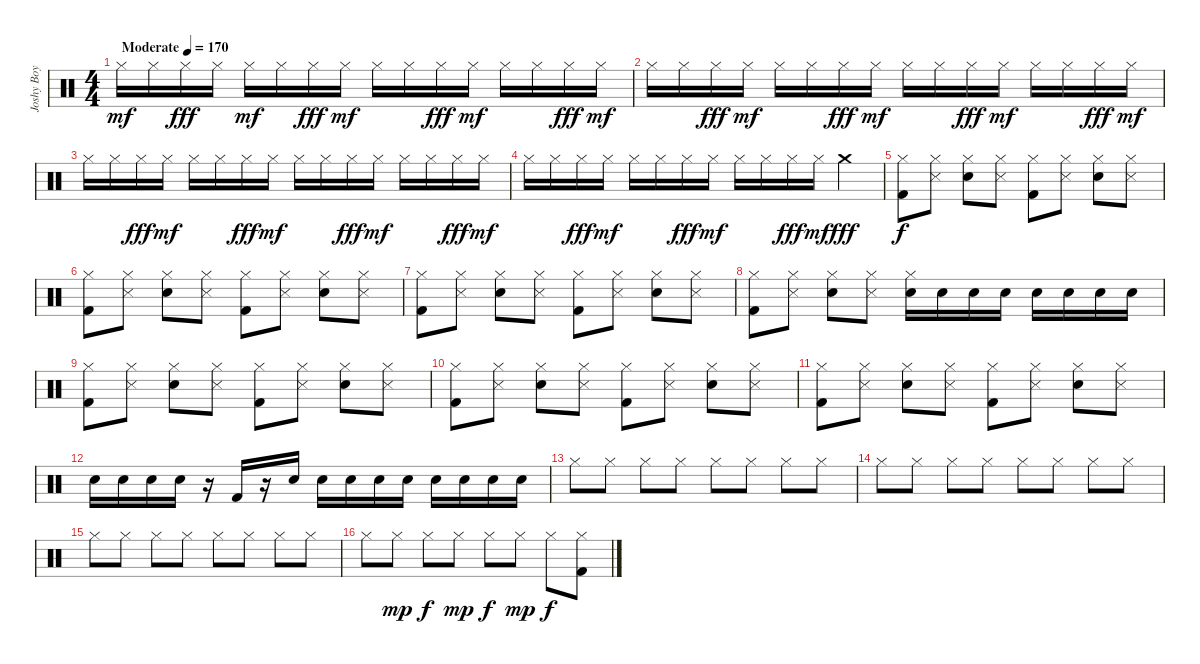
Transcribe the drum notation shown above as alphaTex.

\track ("Joshy Boy" "Joshy Boy") {instrument percussion}
\staff {score}
\articulation defaults
\ts (4 4)
\tempo (170 "Moderate")
\clef neutral
\ks c "Hi-Hat (closed)".16{dy mf} "Hi-Hat (closed)".16 "Hi-Hat (closed)".16{dy fff} "Hi-Hat (closed)".16 "Hi-Hat (closed)".16{dy mf} "Hi-Hat (closed)".16 "Hi-Hat (closed)".16{dy fff} "Hi-Hat (closed)".16{dy mf} "Hi-Hat (closed)".16 "Hi-Hat (closed)".16 "Hi-Hat (closed)".16{dy fff} "Hi-Hat (closed)".16{dy mf} "Hi-Hat (closed)".16 "Hi-Hat (closed)".16 "Hi-Hat (closed)".16{dy fff} "Hi-Hat (closed)".16{dy mf}
|
"Hi-Hat (closed)".16 "Hi-Hat (closed)".16 "Hi-Hat (closed)".16{dy fff} "Hi-Hat (closed)".16{dy mf} "Hi-Hat (closed)".16 "Hi-Hat (closed)".16 "Hi-Hat (closed)".16{dy fff} "Hi-Hat (closed)".16{dy mf} "Hi-Hat (closed)".16 "Hi-Hat (closed)".16 "Hi-Hat (closed)".16{dy fff} "Hi-Hat (closed)".16{dy mf} "Hi-Hat (closed)".16 "Hi-Hat (closed)".16 "Hi-Hat (closed)".16{dy fff} "Hi-Hat (closed)".16{dy mf} |
"Hi-Hat (closed)".16 "Hi-Hat (closed)".16 "Hi-Hat (closed)".16{dy fff} "Hi-Hat (closed)".16{dy mf} "Hi-Hat (closed)".16 "Hi-Hat (closed)".16 "Hi-Hat (closed)".16{dy fff} "Hi-Hat (closed)".16{dy mf} "Hi-Hat (closed)".16 "Hi-Hat (closed)".16 "Hi-Hat (closed)".16{dy fff} "Hi-Hat (closed)".16{dy mf} "Hi-Hat (closed)".16 "Hi-Hat (closed)".16 "Hi-Hat (closed)".16{dy fff} "Hi-Hat (closed)".16{dy mf} |
"Hi-Hat (closed)".16 "Hi-Hat (closed)".16 "Hi-Hat (closed)".16{dy fff} "Hi-Hat (closed)".16{dy mf} "Hi-Hat (closed)".16 "Hi-Hat (closed)".16 "Hi-Hat (closed)".16{dy fff} "Hi-Hat (closed)".16{dy mf} "Hi-Hat (closed)".16 "Hi-Hat (closed)".16 "Hi-Hat (closed)".16{dy fff} "Hi-Hat (closed)".16{dy mf} "Crash medium (hit)".4{dy fff} |
("Hi-Hat (closed)" "Kick (hit) 2").8{dy f} ("Hi-Hat (closed)" "Snare (side stick) 3").8 ("Hi-Hat (closed)" "Electric Snare (hit)").8 ("Hi-Hat (closed)" "Snare (side stick) 3").8 ("Hi-Hat (closed)" "Kick (hit) 2").8 ("Hi-Hat (closed)" "Snare (side stick) 3").8 ("Hi-Hat (closed)" "Electric Snare (hit)").8 ("Hi-Hat (closed)" "Snare (side stick) 3").8 |
("Hi-Hat (closed)" "Kick (hit) 2").8 ("Hi-Hat (closed)" "Snare (side stick) 3").8 ("Hi-Hat (closed)" "Electric Snare (hit)").8 ("Hi-Hat (closed)" "Snare (side stick) 3").8 ("Hi-Hat (closed)" "Kick (hit) 2").8 ("Hi-Hat (closed)" "Snare (side stick) 3").8 ("Hi-Hat (closed)" "Electric Snare (hit)").8 ("Hi-Hat (closed)" "Snare (side stick) 3").8 |
("Hi-Hat (closed)" "Kick (hit) 2").8 ("Hi-Hat (closed)" "Snare (side stick) 3").8 ("Hi-Hat (closed)" "Electric Snare (hit)").8 ("Hi-Hat (closed)" "Snare (side stick) 3").8 ("Hi-Hat (closed)" "Kick (hit) 2").8 ("Hi-Hat (closed)" "Snare (side stick) 3").8 ("Hi-Hat (closed)" "Electric Snare (hit)").8 ("Hi-Hat (closed)" "Snare (side stick) 3").8 |
("Hi-Hat (closed)" "Kick (hit) 2").8 ("Hi-Hat (closed)" "Snare (side stick) 3").8 ("Hi-Hat (closed)" "Electric Snare (hit)").8 ("Hi-Hat (closed)" "Snare (side stick) 3").8 ("Hi-Hat (closed)" "Electric Snare (hit)").16 "Electric Snare (hit)".16 "Electric Snare (hit)".16 "Electric Snare (hit)".16 "Electric Snare (hit)".16 "Electric Snare (hit)".16 "Electric Snare (hit)".16 "Electric Snare (hit)".16 |
("Hi-Hat (closed)" "Kick (hit) 2").8 ("Hi-Hat (closed)" "Snare (side stick) 3").8 ("Hi-Hat (closed)" "Electric Snare (hit)").8 ("Hi-Hat (closed)" "Snare (side stick) 3").8 ("Hi-Hat (closed)" "Kick (hit) 2").8 ("Hi-Hat (closed)" "Snare (side stick) 3").8 ("Hi-Hat (closed)" "Electric Snare (hit)").8 ("Hi-Hat (closed)" "Snare (side stick) 3").8 |
("Hi-Hat (closed)" "Kick (hit) 2").8 ("Hi-Hat (closed)" "Snare (side stick) 3").8 ("Hi-Hat (closed)" "Electric Snare (hit)").8 ("Hi-Hat (closed)" "Snare (side stick) 3").8 ("Hi-Hat (closed)" "Kick (hit) 2").8 ("Hi-Hat (closed)" "Snare (side stick) 3").8 ("Hi-Hat (closed)" "Electric Snare (hit)").8 ("Hi-Hat (closed)" "Snare (side stick) 3").8 |
("Hi-Hat (closed)" "Kick (hit) 2").8 ("Hi-Hat (closed)" "Snare (side stick) 3").8 ("Hi-Hat (closed)" "Electric Snare (hit)").8 ("Hi-Hat (closed)" "Snare (side stick) 3").8 ("Hi-Hat (closed)" "Kick (hit) 2").8 ("Hi-Hat (closed)" "Snare (side stick) 3").8 ("Hi-Hat (closed)" "Electric Snare (hit)").8 ("Hi-Hat (closed)" "Snare (side stick) 3").8 |
"Electric Snare (hit)".16 "Electric Snare (hit)".16 "Electric Snare (hit)".16 "Electric Snare (hit)".16 r.16 "Kick (hit) 2".16 r.16 "Electric Snare (hit)".16 "Electric Snare (hit)".16 "Electric Snare (hit)".16 "Electric Snare (hit)".16 "Electric Snare (hit)".16 "Electric Snare (hit)".16 "Electric Snare (hit)".16 "Electric Snare (hit)".16 "Electric Snare (hit)".16 |
"Hi-Hat (closed)".8 "Hi-Hat (closed)".8 "Hi-Hat (closed)".8 "Hi-Hat (closed)".8 "Hi-Hat (closed)".8 "Hi-Hat (closed)".8 "Hi-Hat (closed)".8 "Hi-Hat (closed)".8 |
"Hi-Hat (closed)".8 "Hi-Hat (closed)".8 "Hi-Hat (closed)".8 "Hi-Hat (closed)".8 "Hi-Hat (closed)".8 "Hi-Hat (closed)".8 "Hi-Hat (closed)".8 "Hi-Hat (closed)".8 |
"Hi-Hat (closed)".8 "Hi-Hat (closed)".8 "Hi-Hat (closed)".8 "Hi-Hat (closed)".8 "Hi-Hat (closed)".8 "Hi-Hat (closed)".8 "Hi-Hat (closed)".8 "Hi-Hat (closed)".8 |
"Hi-Hat (closed)".8 "Hi-Hat (closed)".8{dy mp} "Hi-Hat (closed)".8{dy f} "Hi-Hat (closed)".8{dy mp} "Hi-Hat (closed)".8{dy f} "Hi-Hat (closed)".8{dy mp} "Hi-Hat (closed)".8{dy f} ("Kick (hit) 2" "Hi-Hat (closed)").8
